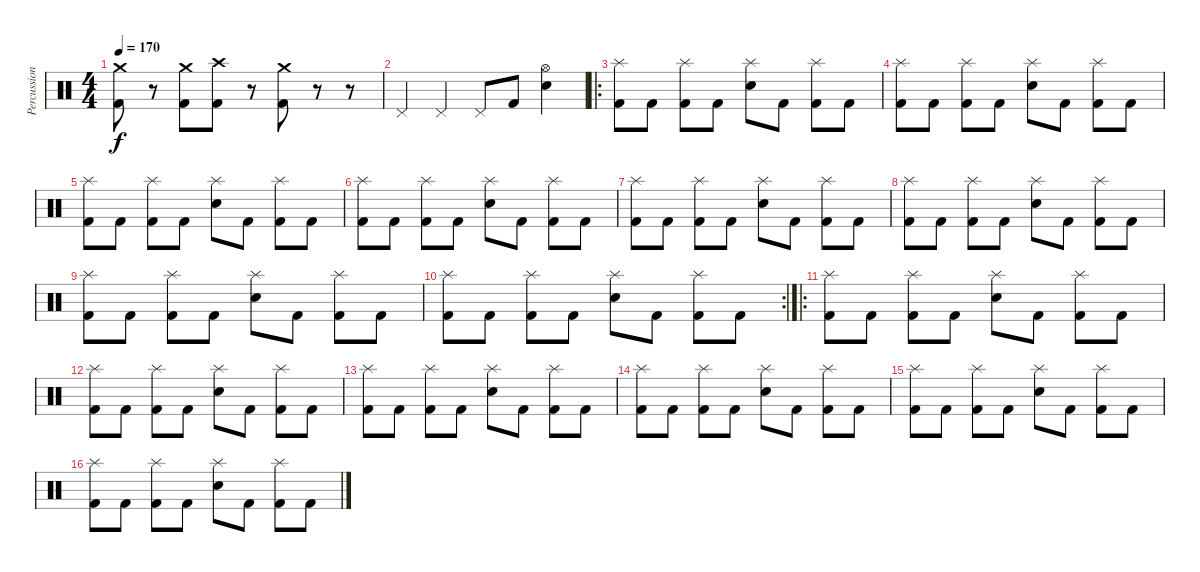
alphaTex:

\track ("Percussion" "Percussion") {instrument percussion}
\staff {score}
\articulation defaults
\ts (4 4)
\tempo 170
\clef neutral
\ks c
("Crash medium (hit)" "Kick (hit) 2").8{dy f balance 16} r.8 ("Crash medium (hit)" "Kick (hit) 2").8{balance 0} ("Crash high (hit)" "Kick (hit) 2").8{balance 16} r.8 ("Crash medium (hit)" "Kick (hit) 2").8{balance 0} r.8 r.8 |
"Pedal Hi-Hat (hit)".4{balance 8} "Pedal Hi-Hat (hit)".4 "Pedal Hi-Hat (hit)".8 "Kick (hit) 2".8 ("Hi-Hat (open)" "Electric Snare (hit)").4 |
\ro
("Splash (hit)" "Kick (hit) 2").8 "Kick (hit) 2".8 ("Splash (hit)" "Kick (hit) 2").8 "Kick (hit) 2".8 ("Splash (hit)" "Electric Snare (hit)").8 "Kick (hit) 2".8 ("Splash (hit)" "Kick (hit) 2").8 "Kick (hit) 2".8 |
("Splash (hit)" "Kick (hit) 2").8 "Kick (hit) 2".8 ("Splash (hit)" "Kick (hit) 2").8 "Kick (hit) 2".8 ("Splash (hit)" "Electric Snare (hit)").8 "Kick (hit) 2".8 ("Splash (hit)" "Kick (hit) 2").8 "Kick (hit) 2".8 |
("Splash (hit)" "Kick (hit) 2").8 "Kick (hit) 2".8 ("Splash (hit)" "Kick (hit) 2").8 "Kick (hit) 2".8 ("Splash (hit)" "Electric Snare (hit)").8 "Kick (hit) 2".8 ("Splash (hit)" "Kick (hit) 2").8 "Kick (hit) 2".8 |
("Splash (hit)" "Kick (hit) 2").8 "Kick (hit) 2".8 ("Splash (hit)" "Kick (hit) 2").8 "Kick (hit) 2".8 ("Splash (hit)" "Electric Snare (hit)").8 "Kick (hit) 2".8 ("Splash (hit)" "Kick (hit) 2").8 "Kick (hit) 2".8 |
("Splash (hit)" "Kick (hit) 2").8 "Kick (hit) 2".8 ("Splash (hit)" "Kick (hit) 2").8 "Kick (hit) 2".8 ("Splash (hit)" "Electric Snare (hit)").8 "Kick (hit) 2".8 ("Splash (hit)" "Kick (hit) 2").8 "Kick (hit) 2".8 |
("Splash (hit)" "Kick (hit) 2").8 "Kick (hit) 2".8 ("Splash (hit)" "Kick (hit) 2").8 "Kick (hit) 2".8 ("Splash (hit)" "Electric Snare (hit)").8 "Kick (hit) 2".8 ("Splash (hit)" "Kick (hit) 2").8 "Kick (hit) 2".8 |
("Splash (hit)" "Kick (hit) 2").8 "Kick (hit) 2".8 ("Splash (hit)" "Kick (hit) 2").8 "Kick (hit) 2".8 ("Splash (hit)" "Electric Snare (hit)").8 "Kick (hit) 2".8 ("Splash (hit)" "Kick (hit) 2").8 "Kick (hit) 2".8 |
\rc 2
("Splash (hit)" "Kick (hit) 2").8 "Kick (hit) 2".8 ("Splash (hit)" "Kick (hit) 2").8 "Kick (hit) 2".8 ("Splash (hit)" "Electric Snare (hit)").8 "Kick (hit) 2".8 ("Splash (hit)" "Kick (hit) 2").8 "Kick (hit) 2".8 |
\ro
("Splash (hit)" "Kick (hit) 2").8 "Kick (hit) 2".8 ("Splash (hit)" "Kick (hit) 2").8 "Kick (hit) 2".8 ("Splash (hit)" "Electric Snare (hit)").8 "Kick (hit) 2".8 ("Splash (hit)" "Kick (hit) 2").8 "Kick (hit) 2".8 |
("Splash (hit)" "Kick (hit) 2").8 "Kick (hit) 2".8 ("Splash (hit)" "Kick (hit) 2").8 "Kick (hit) 2".8 ("Splash (hit)" "Electric Snare (hit)").8 "Kick (hit) 2".8 ("Splash (hit)" "Kick (hit) 2").8 "Kick (hit) 2".8 |
("Splash (hit)" "Kick (hit) 2").8 "Kick (hit) 2".8 ("Splash (hit)" "Kick (hit) 2").8 "Kick (hit) 2".8 ("Splash (hit)" "Electric Snare (hit)").8 "Kick (hit) 2".8 ("Splash (hit)" "Kick (hit) 2").8 "Kick (hit) 2".8 |
("Splash (hit)" "Kick (hit) 2").8 "Kick (hit) 2".8 ("Splash (hit)" "Kick (hit) 2").8 "Kick (hit) 2".8 ("Splash (hit)" "Electric Snare (hit)").8 "Kick (hit) 2".8 ("Splash (hit)" "Kick (hit) 2").8 "Kick (hit) 2".8 |
("Splash (hit)" "Kick (hit) 2").8 "Kick (hit) 2".8 ("Splash (hit)" "Kick (hit) 2").8 "Kick (hit) 2".8 ("Splash (hit)" "Electric Snare (hit)").8 "Kick (hit) 2".8 ("Splash (hit)" "Kick (hit) 2").8 "Kick (hit) 2".8 |
("Splash (hit)" "Kick (hit) 2").8 "Kick (hit) 2".8 ("Splash (hit)" "Kick (hit) 2").8 "Kick (hit) 2".8 ("Splash (hit)" "Electric Snare (hit)").8 "Kick (hit) 2".8 ("Splash (hit)" "Kick (hit) 2").8 "Kick (hit) 2".8
